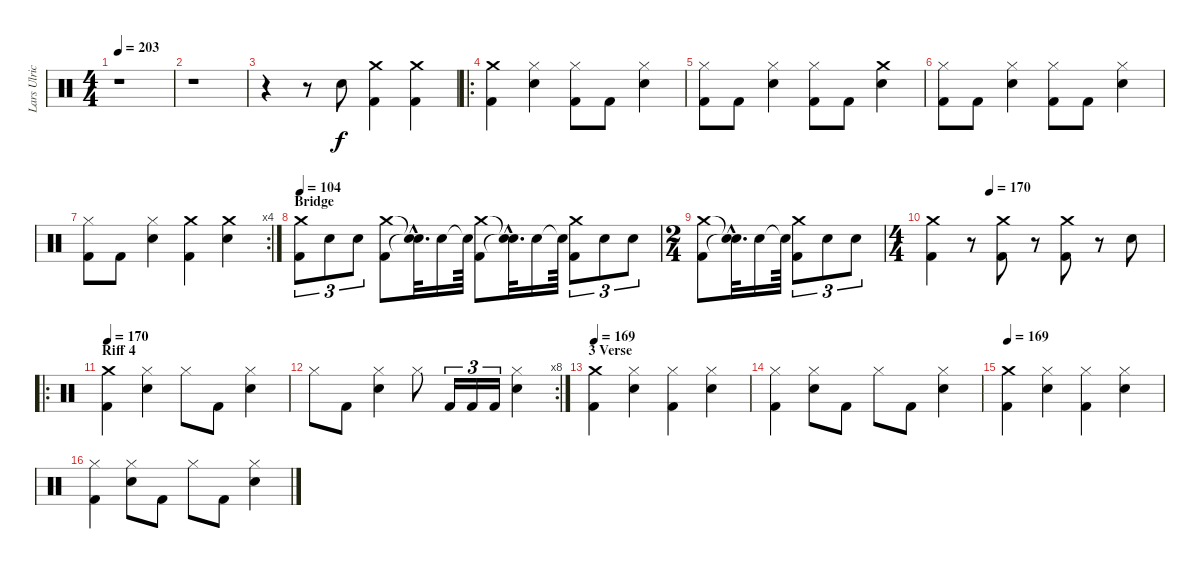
\track ("Lars Ulrich (Drums)" "Lars Ulric") {instrument percussion}
\staff {score}
\articulation defaults
\ts (4 4)
\tempo 203
\clef neutral
\ks c
r.1{dy f} |
r.1 |
r.4 r.8 "Snare (hit) 2".8 ("Kick (hit) 2" "Crash medium (hit)").4 ("Kick (hit) 2" "Crash medium (hit)").4 |
\ro
("Kick (hit) 2" "Crash medium (hit)").4 ("Hi-Hat (closed)" "Snare (hit) 2").4 ("Kick (hit) 2" "Hi-Hat (closed)").8 "Kick (hit) 2".8 ("Snare (hit) 2" "Hi-Hat (closed)").4 |
("Hi-Hat (closed)" "Kick (hit) 2").8 "Kick (hit) 2".8 ("Snare (hit) 2" "Hi-Hat (closed)").4 ("Hi-Hat (closed)" "Kick (hit) 2").8 "Kick (hit) 2".8 ("Crash medium (hit)" "Snare (hit) 2").4 |
("Hi-Hat (closed)" "Kick (hit) 2").8 "Kick (hit) 2".8 ("Snare (hit) 2" "Hi-Hat (closed)").4 ("Hi-Hat (closed)" "Kick (hit) 2").8 "Kick (hit) 2".8 ("Snare (hit) 2" "Hi-Hat (closed)").4 |
\rc 4
("Hi-Hat (closed)" "Kick (hit) 2").8 "Kick (hit) 2".8 ("Snare (hit) 2" "Hi-Hat (closed)").4 ("Crash medium (hit)" "Kick (hit) 2").4 ("Crash medium (hit)" "Snare (hit) 2").4 |
\section ("" "Bridge")
\tempo 104
("Crash medium (hit)" "Kick (hit) 2").8{tu (3 2)} "Snare (hit) 2".8{tu (3 2)} "Snare (hit) 2".8{tu (3 2)} ("Crash medium (hit)" "Kick (hit) 2").8 ("Snare (hit)"{hac t} "Snare (hit)"{hac t}).32{d} "Snare (hit) 2".16 "Snare (hit)"{t}.64 ("Crash medium (hit)" "Kick (hit) 2").8 ("Snare (hit)"{hac t} "Snare (hit)"{hac t}).32{d} "Snare (hit) 2".16 "Snare (hit)"{t}.64 ("Crash medium (hit)" "Kick (hit) 2").8{tu (3 2)} "Snare (hit) 2".8{tu (3 2)} "Snare (hit) 2".8{tu (3 2)} |
\ts (2 4)
("Kick (hit) 2" "Crash medium (hit)").8 ("Snare (hit)"{hac t} "Snare (hit)"{hac t}).32{d} "Snare (hit) 2".16 "Snare (hit)"{t}.64 ("Kick (hit) 2" "Crash medium (hit)").8{tu (3 2)} "Snare (hit) 2".8{tu (3 2)} "Snare (hit) 2".8{tu (3 2)} |
\ts (4 4)
\tempo (170 0.25)
("Crash medium (hit)" "Kick (hit) 2").4 r.8 ("Kick (hit) 2" "Crash medium (hit)").8 r.8 ("Crash medium (hit)" "Kick (hit) 2").8 r.8 "Snare (hit) 2".8 |
\ro
\section ("" "Riff 4")
\tempo 170
("Kick (hit) 2" "Crash medium (hit)").4 ("Hi-Hat (closed)" "Snare (hit) 2").4 "Hi-Hat (closed)".8 "Kick (hit) 2".8 ("Snare (hit) 2" "Hi-Hat (closed)").4 |
\rc 8 "Hi-Hat (closed)".8 "Kick (hit) 2".8
("Snare (hit) 2" "Hi-Hat (closed)").4 "Hi-Hat (closed)".8 "Kick (hit) 2".16{tu (3 2)} "Kick (hit) 2".16{tu (3 2)} "Kick (hit) 2".16{tu (3 2)} ("Snare (hit) 2" "Hi-Hat (closed)").4 |
\section ("" "3 Verse")
\tempo 169
("Kick (hit) 2" "Crash medium (hit)").4 ("Hi-Hat (closed)" "Snare (hit) 2").4 ("Hi-Hat (closed)" "Kick (hit) 2").4 ("Snare (hit) 2" "Hi-Hat (closed)").4 |
("Hi-Hat (closed)" "Kick (hit) 2").4 ("Snare (hit) 2" "Hi-Hat (closed)").8 "Kick (hit) 2".8 "Hi-Hat (closed)".8 "Kick (hit) 2".8 ("Snare (hit) 2" "Hi-Hat (closed)").4 |
\tempo 169
("Kick (hit) 2" "Crash medium (hit)").4 ("Hi-Hat (closed)" "Snare (hit) 2").4 ("Hi-Hat (closed)" "Kick (hit) 2").4 ("Snare (hit) 2" "Hi-Hat (closed)").4 |
("Hi-Hat (closed)" "Kick (hit) 2").4 ("Snare (hit) 2" "Hi-Hat (closed)").8 "Kick (hit) 2".8 "Hi-Hat (closed)".8 "Kick (hit) 2".8 ("Snare (hit) 2" "Hi-Hat (closed)").4
